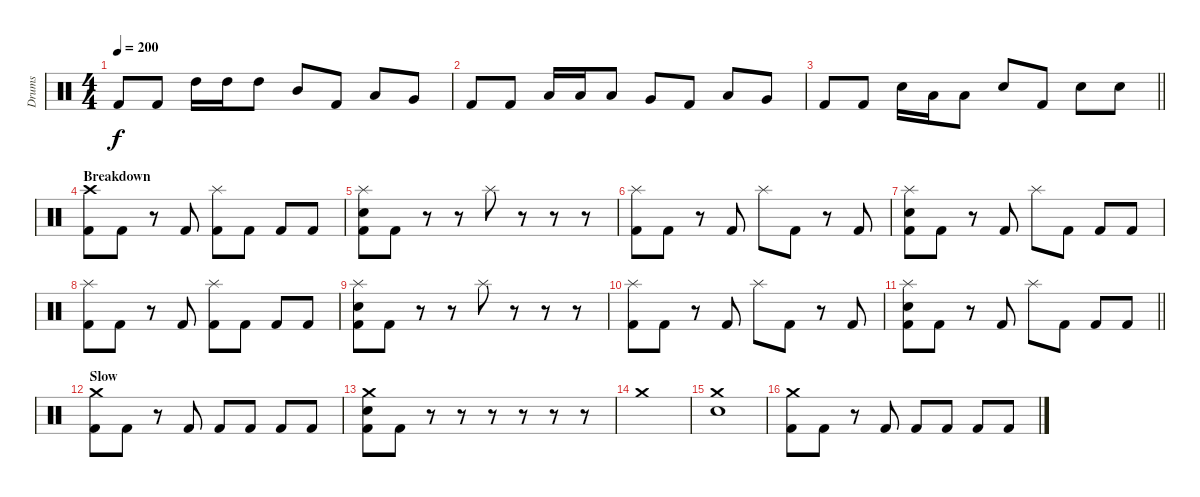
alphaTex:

\track ("Drums" "Drums") {instrument percussion}
\staff {score}
\articulation defaults
\ts (4 4)
\tempo 200
\clef neutral
\ks c "Kick (hit) 2".8{dy f} "Kick (hit) 2".8 "High Tom (hit)".16 "High Tom (hit)".16 "High Tom (hit)".8 "Mid Tom (hit)".8 "Kick (hit) 2".8 "Low Tom (hit)".8 "Very Low Tom (hit)".8
|
"Kick (hit) 2".8 "Kick (hit) 2".8 "Low Tom (hit)".16 "Low Tom (hit)".16 "Low Tom (hit)".8 "Very Low Tom (hit)".8 "Kick (hit) 2".8 "Low Tom (hit)".8 "Very Low Tom (hit)".8 |
\barLineRight lightlight "Kick (hit) 2".8 "Kick (hit) 2".8 "Electric Snare (hit)".16 "Low Tom (hit)".16 "Low Tom (hit)".8 "Electric Snare (hit)".8 "Kick (hit) 2".8 "Electric Snare (hit)".8 "Electric Snare (hit)".8
|
\section ("" "Breakdown")
("Crash high (hit)" "Kick (hit) 2").8 "Kick (hit) 2".8 r.8 "Kick (hit) 2".8 ("Splash (hit)" "Kick (hit) 2").8 "Kick (hit) 2".8 "Kick (hit) 2".8 "Kick (hit) 2".8 |
("Splash (hit)" "Electric Snare (hit)" "Kick (hit) 2").8 "Kick (hit) 2".8 r.8 r.8 "Splash (hit)".8 r.8 r.8 r.8 |
("Splash (hit)" "Kick (hit) 2").8 "Kick (hit) 2".8 r.8 "Kick (hit) 2".8 "Splash (hit)".8 "Kick (hit) 2".8 r.8 "Kick (hit) 2".8 |
("Splash (hit)" "Electric Snare (hit)" "Kick (hit) 2").8 "Kick (hit) 2".8 r.8 "Kick (hit) 2".8 "Splash (hit)".8 "Kick (hit) 2".8 "Kick (hit) 2".8 "Kick (hit) 2".8 |
("Splash (hit)" "Kick (hit) 2").8 "Kick (hit) 2".8 r.8 "Kick (hit) 2".8 ("Splash (hit)" "Kick (hit) 2").8 "Kick (hit) 2".8 "Kick (hit) 2".8 "Kick (hit) 2".8 |
("Splash (hit)" "Electric Snare (hit)" "Kick (hit) 2").8 "Kick (hit) 2".8 r.8 r.8 "Splash (hit)".8 r.8 r.8 r.8 |
("Splash (hit)" "Kick (hit) 2").8 "Kick (hit) 2".8 r.8 "Kick (hit) 2".8 "Splash (hit)".8 "Kick (hit) 2".8 r.8 "Kick (hit) 2".8 |
\barLineRight lightlight
("Splash (hit)" "Electric Snare (hit)" "Kick (hit) 2").8 "Kick (hit) 2".8 r.8 "Kick (hit) 2".8 "Splash (hit)".8 "Kick (hit) 2".8 "Kick (hit) 2".8 "Kick (hit) 2".8 |
\section ("" "Slow")
("Crash medium (hit)" "Kick (hit) 2").8 "Kick (hit) 2".8 r.8 "Kick (hit) 2".8 "Kick (hit) 2".8 "Kick (hit) 2".8 "Kick (hit) 2".8 "Kick (hit) 2".8 |
("Crash medium (hit)" "Electric Snare (hit)" "Kick (hit) 2").8 "Kick (hit) 2".8 r.8 r.8 r.8 r.8 r.8 r.8 |
"Crash medium (hit)".1 |
("Crash medium (hit)" "Electric Snare (hit)").1 |
("Crash medium (hit)" "Kick (hit) 2").8 "Kick (hit) 2".8 r.8 "Kick (hit) 2".8 "Kick (hit) 2".8 "Kick (hit) 2".8 "Kick (hit) 2".8 "Kick (hit) 2".8
